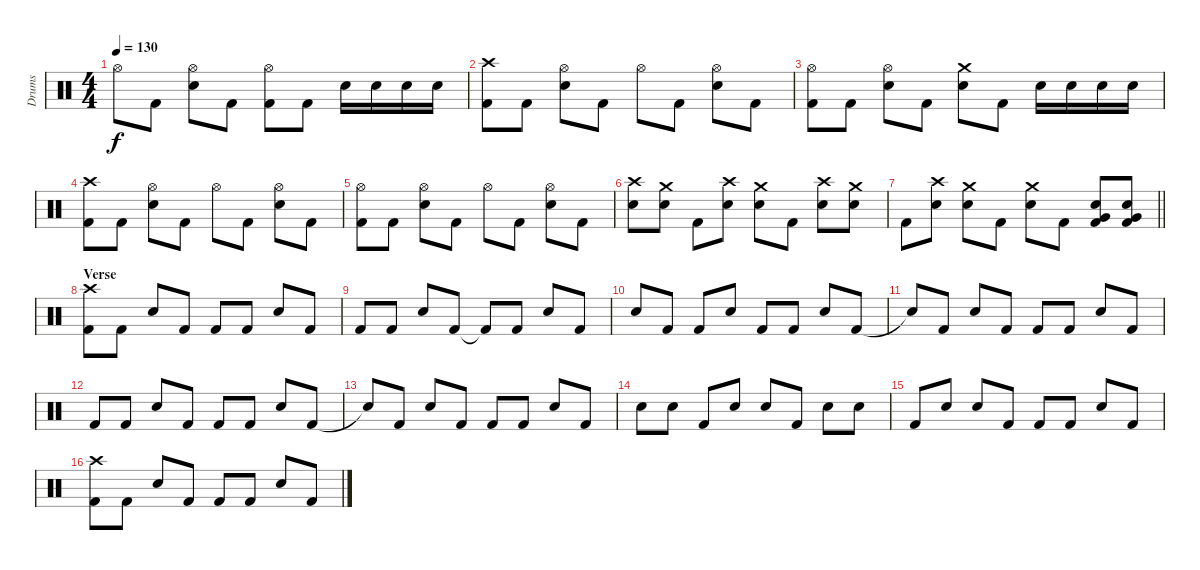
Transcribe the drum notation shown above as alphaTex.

\track ("Drums" "Drums") {instrument percussion}
\staff {score}
\articulation defaults
\ts (4 4)
\tempo 130
\clef neutral
\ks c "Hi-Hat (open)".8{dy f} "Kick (hit) 2".8
("Hi-Hat (open)" "Electric Snare (hit)").8 "Kick (hit) 2".8 ("Hi-Hat (open)" "Kick (hit) 2").8 "Kick (hit) 2".8 "Electric Snare (hit)".16 "Electric Snare (hit)".16 "Electric Snare (hit)".16 "Electric Snare (hit)".16 |
("Crash high (hit)" "Kick (hit) 2").8 "Kick (hit) 2".8 ("Hi-Hat (open)" "Electric Snare (hit)").8 "Kick (hit) 2".8 "Hi-Hat (open)".8 "Kick (hit) 2".8 ("Hi-Hat (open)" "Electric Snare (hit)").8 "Kick (hit) 2".8 |
("Hi-Hat (open)" "Kick (hit) 2").8 "Kick (hit) 2".8 ("Hi-Hat (open)" "Electric Snare (hit)").8 "Kick (hit) 2".8 ("Crash medium (hit)" "Electric Snare (hit)").8 "Kick (hit) 2".8 "Electric Snare (hit)".16 "Electric Snare (hit)".16 "Electric Snare (hit)".16 "Electric Snare (hit)".16 |
("Crash high (hit)" "Kick (hit) 2").8 "Kick (hit) 2".8 ("Hi-Hat (open)" "Electric Snare (hit)").8 "Kick (hit) 2".8 "Hi-Hat (open)".8 "Kick (hit) 2".8 ("Hi-Hat (open)" "Electric Snare (hit)").8 "Kick (hit) 2".8 |
("Hi-Hat (open)" "Kick (hit) 2").8 "Kick (hit) 2".8 ("Hi-Hat (open)" "Electric Snare (hit)").8 "Kick (hit) 2".8 "Hi-Hat (open)".8 "Kick (hit) 2".8 ("Hi-Hat (open)" "Electric Snare (hit)").8 "Kick (hit) 2".8 |
("Crash high (hit)" "Electric Snare (hit)").8 ("Crash medium (hit)" "Electric Snare (hit)").8 "Kick (hit) 2".8 ("Crash high (hit)" "Electric Snare (hit)").8 ("Crash medium (hit)" "Electric Snare (hit)").8 "Kick (hit) 2".8 ("Crash high (hit)" "Electric Snare (hit)").8 ("Crash medium (hit)" "Electric Snare (hit)").8 |
\barLineRight lightlight "Kick (hit) 2".8
("Crash high (hit)" "Electric Snare (hit)").8 ("Crash medium (hit)" "Electric Snare (hit)").8 "Kick (hit) 2".8 ("Crash medium (hit)" "Electric Snare (hit)").8 "Kick (hit) 2".8 ("Very Low Tom (hit)" "Electric Snare (hit)" "Kick (hit) 2").8 ("Very Low Tom (hit)" "Electric Snare (hit)" "Kick (hit) 2").8 |
\section ("" "Verse")
("Crash high (hit)" "Kick (hit) 2").8 "Kick (hit) 2".8 "Electric Snare (hit)".8 "Kick (hit) 2".8 "Kick (hit) 2".8 "Kick (hit) 2".8 "Electric Snare (hit)".8 "Kick (hit) 2".8 |
"Kick (hit) 2".8 "Kick (hit) 2".8 "Electric Snare (hit)".8 "Kick (hit) 2".8 "Kick (hit) 2"{t}.8 "Kick (hit) 2".8 "Electric Snare (hit)".8 "Kick (hit) 2".8 |
"Electric Snare (hit)".8 "Kick (hit) 2".8 "Kick (hit) 2".8 "Electric Snare (hit)".8 "Kick (hit) 2".8 "Kick (hit) 2".8 "Electric Snare (hit)".8 "Kick (hit) 2".8 |
"Snare (hit)"{t}.8 "Kick (hit) 2".8 "Electric Snare (hit)".8 "Kick (hit) 2".8 "Kick (hit) 2".8 "Kick (hit) 2".8 "Electric Snare (hit)".8 "Kick (hit) 2".8 |
"Kick (hit) 2".8 "Kick (hit) 2".8 "Electric Snare (hit)".8 "Kick (hit) 2".8 "Kick (hit) 2".8 "Kick (hit) 2".8 "Electric Snare (hit)".8 "Kick (hit) 2".8 |
"Snare (hit)"{t}.8 "Kick (hit) 2".8 "Electric Snare (hit)".8 "Kick (hit) 2".8 "Kick (hit) 2".8 "Kick (hit) 2".8 "Electric Snare (hit)".8 "Kick (hit) 2".8 |
"Electric Snare (hit)".8 "Electric Snare (hit)".8 "Kick (hit) 2".8 "Electric Snare (hit)".8 "Electric Snare (hit)".8 "Kick (hit) 2".8 "Electric Snare (hit)".8 "Electric Snare (hit)".8 |
"Kick (hit) 2".8 "Electric Snare (hit)".8 "Electric Snare (hit)".8 "Kick (hit) 2".8 "Kick (hit) 2".8 "Kick (hit) 2".8 "Electric Snare (hit)".8 "Kick (hit) 2".8 |
("Crash high (hit)" "Kick (hit) 2").8 "Kick (hit) 2".8 "Electric Snare (hit)".8 "Kick (hit) 2".8 "Kick (hit) 2".8 "Kick (hit) 2".8 "Electric Snare (hit)".8 "Kick (hit) 2".8
